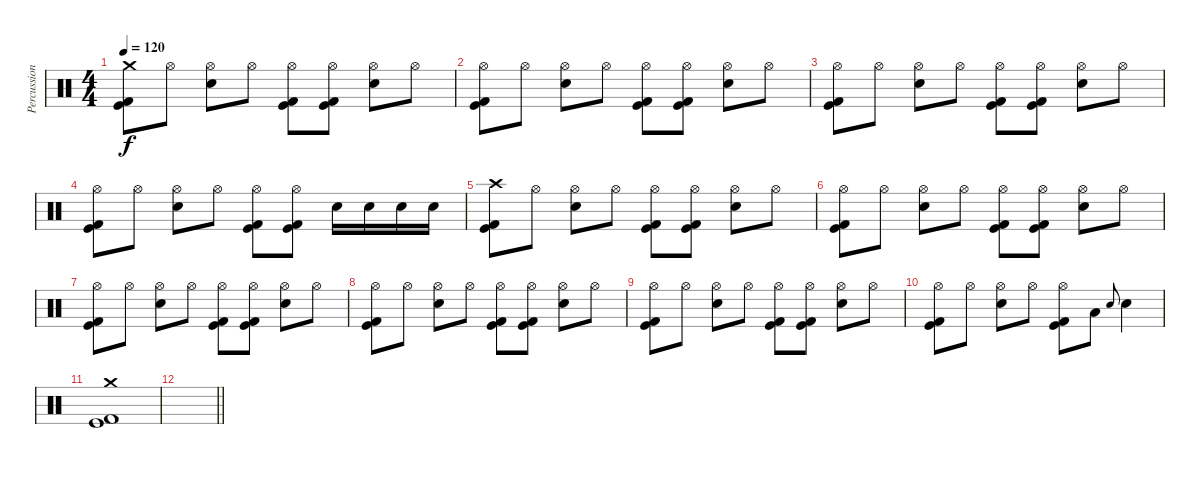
\track ("Percussion" "Percussion") {instrument percussion}
\staff {score}
\articulation defaults
\ts (4 4)
\tempo 120
\clef neutral
\ks c
("Crash medium (hit)" "Kick (hit)" "Kick (hit) 2").8{dy f} "Hi-Hat (open)".8 ("Hi-Hat (open)" "Electric Snare (hit)").8 "Hi-Hat (open)".8 ("Hi-Hat (open)" "Kick (hit)" "Kick (hit) 2").8 ("Hi-Hat (open)" "Kick (hit)" "Kick (hit) 2").8 ("Hi-Hat (open)" "Electric Snare (hit)").8 "Hi-Hat (open)".8 |
("Hi-Hat (open)" "Kick (hit)" "Kick (hit) 2").8 "Hi-Hat (open)".8 ("Hi-Hat (open)" "Electric Snare (hit)").8 "Hi-Hat (open)".8 ("Hi-Hat (open)" "Kick (hit)" "Kick (hit) 2").8 ("Hi-Hat (open)" "Kick (hit)" "Kick (hit) 2").8 ("Hi-Hat (open)" "Electric Snare (hit)").8 "Hi-Hat (open)".8 |
("Hi-Hat (open)" "Kick (hit)" "Kick (hit) 2").8 "Hi-Hat (open)".8 ("Hi-Hat (open)" "Electric Snare (hit)").8 "Hi-Hat (open)".8 ("Hi-Hat (open)" "Kick (hit)" "Kick (hit) 2").8 ("Hi-Hat (open)" "Kick (hit)" "Kick (hit) 2").8 ("Hi-Hat (open)" "Electric Snare (hit)").8 "Hi-Hat (open)".8 |
("Hi-Hat (open)" "Kick (hit)" "Kick (hit) 2").8 "Hi-Hat (open)".8 ("Hi-Hat (open)" "Electric Snare (hit)").8 "Hi-Hat (open)".8 ("Hi-Hat (open)" "Kick (hit)" "Kick (hit) 2").8 ("Hi-Hat (open)" "Kick (hit)" "Kick (hit) 2").8 "Electric Snare (hit)".16 "Electric Snare (hit)".16 "Electric Snare (hit)".16 "Electric Snare (hit)".16 |
("Crash high (hit)" "Kick (hit)" "Kick (hit) 2").8 "Hi-Hat (open)".8 ("Hi-Hat (open)" "Electric Snare (hit)").8 "Hi-Hat (open)".8 ("Hi-Hat (open)" "Kick (hit)" "Kick (hit) 2").8 ("Hi-Hat (open)" "Kick (hit)" "Kick (hit) 2").8 ("Hi-Hat (open)" "Electric Snare (hit)").8 "Hi-Hat (open)".8 |
("Hi-Hat (open)" "Kick (hit)" "Kick (hit) 2").8 "Hi-Hat (open)".8 ("Hi-Hat (open)" "Electric Snare (hit)").8 "Hi-Hat (open)".8 ("Hi-Hat (open)" "Kick (hit)" "Kick (hit) 2").8 ("Hi-Hat (open)" "Kick (hit)" "Kick (hit) 2").8 ("Hi-Hat (open)" "Electric Snare (hit)").8 "Hi-Hat (open)".8 |
("Hi-Hat (open)" "Kick (hit)" "Kick (hit) 2").8 "Hi-Hat (open)".8 ("Hi-Hat (open)" "Electric Snare (hit)").8 "Hi-Hat (open)".8 ("Hi-Hat (open)" "Kick (hit)" "Kick (hit) 2").8 ("Hi-Hat (open)" "Kick (hit)" "Kick (hit) 2").8 ("Hi-Hat (open)" "Electric Snare (hit)").8 "Hi-Hat (open)".8 |
("Hi-Hat (open)" "Kick (hit)" "Kick (hit) 2").8 "Hi-Hat (open)".8 ("Hi-Hat (open)" "Electric Snare (hit)").8 "Hi-Hat (open)".8 ("Hi-Hat (open)" "Kick (hit)" "Kick (hit) 2").8 ("Hi-Hat (open)" "Kick (hit)" "Kick (hit) 2").8 ("Hi-Hat (open)" "Electric Snare (hit)").8 "Hi-Hat (open)".8 |
("Hi-Hat (open)" "Kick (hit)" "Kick (hit) 2").8 "Hi-Hat (open)".8 ("Hi-Hat (open)" "Electric Snare (hit)").8 "Hi-Hat (open)".8 ("Hi-Hat (open)" "Kick (hit)" "Kick (hit) 2").8 ("Hi-Hat (open)" "Kick (hit)" "Kick (hit) 2").8 ("Hi-Hat (open)" "Electric Snare (hit)").8 "Hi-Hat (open)".8 |
("Hi-Hat (open)" "Kick (hit)" "Kick (hit) 2").8 "Hi-Hat (open)".8 ("Hi-Hat (open)" "Electric Snare (hit)").8 "Hi-Hat (open)".8 ("Hi-Hat (open)" "Kick (hit)" "Kick (hit) 2").8 "Low Tom (hit)".8 "Electric Snare (hit)".8{gr onbeat} "Electric Snare (hit)".4 |
("Crash medium (hit)" "Kick (hit)" "Kick (hit) 2").1 |
\barLineRight lightlight
